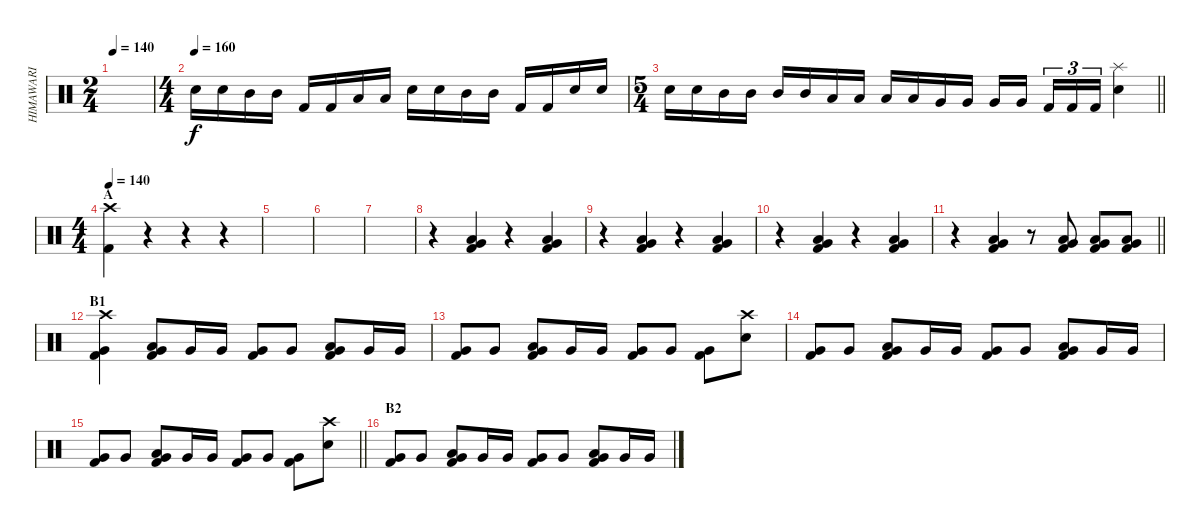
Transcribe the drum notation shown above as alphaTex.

\track ("HIMAWARI" "HIMAWARI") {instrument percussion}
\staff {score}
\articulation defaults
\ts (2 4)
\tempo 140
\clef neutral
\ks c
|
\ts (4 4)
\tempo (160)
"Snare (hit) 2".16 "Snare (hit) 2".16 "Mid Tom (hit)".16 "Mid Tom (hit)".16 "Kick (hit) 2".16 "Kick (hit) 2".16 "Low Tom (hit)".16 "Low Tom (hit)".16 "Snare (hit) 2".16 "Snare (hit) 2".16 "Mid Tom (hit)".16 "Mid Tom (hit)".16 "Kick (hit) 2".16 "Kick (hit) 2".16 "Snare (hit) 2".16 "Snare (hit) 2".16 |
\ts (5 4)
\barLineRight lightlight "Snare (hit) 2".16 "Snare (hit) 2".16 "Mid Tom (hit)".16 "Mid Tom (hit)".16 "Mid Tom (hit)".16 "Mid Tom (hit)".16 "Low Tom (hit)".16 "Low Tom (hit)".16 "Low Tom (hit)".16 "Low Tom (hit)".16 "Very Low Tom (hit)".16 "Very Low Tom (hit)".16 "Very Low Tom (hit)".16 "Very Low Tom (hit)".16 "Kick (hit) 2".16{tu (3 2)} "Kick (hit) 2".16{tu (3 2)} "Kick (hit) 2".16{tu (3 2)}
("Splash (hit)" "Snare (hit) 2").4 |
\ts (4 4)
\section ("" "A")
\tempo 140
("Crash high (hit)" "Kick (hit) 2").4 r.4 r.4 r.4 |
|
|
|
r.4 ("Very Low Tom (hit)" "Low Tom (hit)" "Kick (hit) 2").4 r.4 ("Very Low Tom (hit)" "Low Tom (hit)" "Kick (hit) 2").4 |
r.4 ("Very Low Tom (hit)" "Low Tom (hit)" "Kick (hit) 2").4 r.4 ("Very Low Tom (hit)" "Low Tom (hit)" "Kick (hit) 2").4 |
r.4 ("Very Low Tom (hit)" "Low Tom (hit)" "Kick (hit) 2").4 r.4 ("Very Low Tom (hit)" "Low Tom (hit)" "Kick (hit) 2").4 |
\barLineRight lightlight
r.4 ("Very Low Tom (hit)" "Low Tom (hit)" "Kick (hit) 2").4 r.8 ("Very Low Tom (hit)" "Low Tom (hit)" "Kick (hit) 2").8 ("Very Low Tom (hit)" "Low Tom (hit)" "Kick (hit) 2").8 ("Very Low Tom (hit)" "Low Tom (hit)" "Kick (hit) 2").8 |
\section ("" "B1")
("Crash high (hit)" "Very Low Tom (hit)" "Kick (hit) 2").4 ("Low Tom (hit)" "Very Low Tom (hit)" "Kick (hit) 2").8 "Very Low Tom (hit)".16 "Very Low Tom (hit)".16 ("Very Low Tom (hit)" "Kick (hit) 2").8 "Very Low Tom (hit)".8 ("Low Tom (hit)" "Very Low Tom (hit)" "Kick (hit) 2").8 "Very Low Tom (hit)".16 "Very Low Tom (hit)".16 |
("Very Low Tom (hit)" "Kick (hit) 2").8 "Very Low Tom (hit)".8 ("Low Tom (hit)" "Very Low Tom (hit)" "Kick (hit) 2").8 "Very Low Tom (hit)".16 "Very Low Tom (hit)".16 ("Very Low Tom (hit)" "Kick (hit) 2").8 "Very Low Tom (hit)".8 ("Very Low Tom (hit)" "Kick (hit) 2").8 ("Crash high (hit)" "Snare (hit) 2").8 |
("Very Low Tom (hit)" "Kick (hit) 2").8 "Very Low Tom (hit)".8 ("Low Tom (hit)" "Very Low Tom (hit)" "Kick (hit) 2").8 "Very Low Tom (hit)".16 "Very Low Tom (hit)".16 ("Very Low Tom (hit)" "Kick (hit) 2").8 "Very Low Tom (hit)".8 ("Low Tom (hit)" "Very Low Tom (hit)" "Kick (hit) 2").8 "Very Low Tom (hit)".16 "Very Low Tom (hit)".16 |
\barLineRight lightlight
("Very Low Tom (hit)" "Kick (hit) 2").8 "Very Low Tom (hit)".8 ("Low Tom (hit)" "Very Low Tom (hit)" "Kick (hit) 2").8 "Very Low Tom (hit)".16 "Very Low Tom (hit)".16 ("Very Low Tom (hit)" "Kick (hit) 2").8 "Very Low Tom (hit)".8 ("Very Low Tom (hit)" "Kick (hit) 2").8 ("Crash high (hit)" "Snare (hit) 2").8 |
\section ("" "B2")
("Very Low Tom (hit)" "Kick (hit) 2").8 "Very Low Tom (hit)".8 ("Low Tom (hit)" "Very Low Tom (hit)" "Kick (hit) 2").8 "Very Low Tom (hit)".16 "Very Low Tom (hit)".16 ("Very Low Tom (hit)" "Kick (hit) 2").8 "Very Low Tom (hit)".8 ("Low Tom (hit)" "Very Low Tom (hit)" "Kick (hit) 2").8 "Very Low Tom (hit)".16 "Very Low Tom (hit)".16
